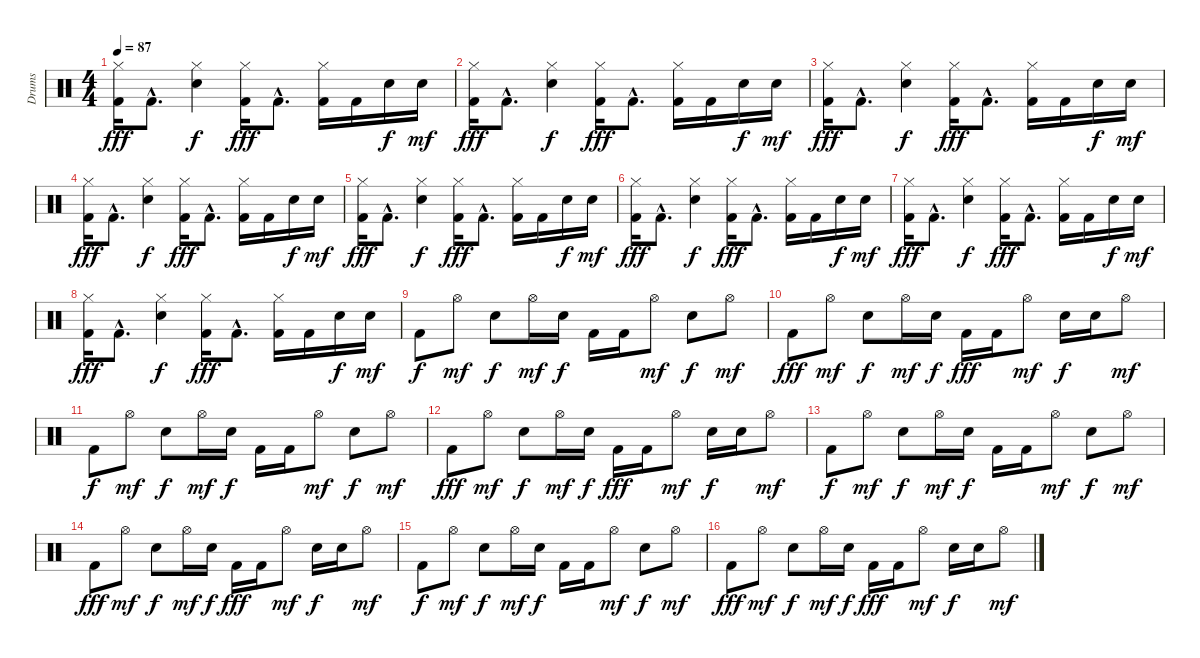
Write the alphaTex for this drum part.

\track ("Drums" "Drums") {instrument percussion}
\staff {score}
\articulation defaults
\ts (4 4)
\tempo 87
\clef neutral
\ks c
("Hi-Hat (closed)" "Kick (hit) 2").16{dy fff} "Kick (hit) 2"{hac}.8{d} ("Hi-Hat (closed)" "Snare (hit) 2").4{dy f} ("Hi-Hat (closed)" "Kick (hit) 2").16{dy fff} "Kick (hit) 2"{hac}.8{d} ("Hi-Hat (closed)" "Kick (hit) 2").16 "Kick (hit) 2".16 "Snare (hit) 2".16{dy f} "Snare (hit) 2".16{dy mf} |
("Hi-Hat (closed)" "Kick (hit) 2").16{dy fff} "Kick (hit) 2"{hac}.8{d} ("Hi-Hat (closed)" "Snare (hit) 2").4{dy f} ("Hi-Hat (closed)" "Kick (hit) 2").16{dy fff} "Kick (hit) 2"{hac}.8{d} ("Hi-Hat (closed)" "Kick (hit) 2").16 "Kick (hit) 2".16 "Snare (hit) 2".16{dy f} "Snare (hit) 2".16{dy mf} |
("Hi-Hat (closed)" "Kick (hit) 2").16{dy fff} "Kick (hit) 2"{hac}.8{d} ("Hi-Hat (closed)" "Snare (hit) 2").4{dy f} ("Hi-Hat (closed)" "Kick (hit) 2").16{dy fff} "Kick (hit) 2"{hac}.8{d} ("Hi-Hat (closed)" "Kick (hit) 2").16 "Kick (hit) 2".16 "Snare (hit) 2".16{dy f} "Snare (hit) 2".16{dy mf} |
("Hi-Hat (closed)" "Kick (hit) 2").16{dy fff} "Kick (hit) 2"{hac}.8{d} ("Hi-Hat (closed)" "Snare (hit) 2").4{dy f} ("Hi-Hat (closed)" "Kick (hit) 2").16{dy fff} "Kick (hit) 2"{hac}.8{d} ("Hi-Hat (closed)" "Kick (hit) 2").16 "Kick (hit) 2".16 "Snare (hit) 2".16{dy f} "Snare (hit) 2".16{dy mf} |
("Hi-Hat (closed)" "Kick (hit) 2").16{dy fff} "Kick (hit) 2"{hac}.8{d} ("Hi-Hat (closed)" "Snare (hit) 2").4{dy f} ("Hi-Hat (closed)" "Kick (hit) 2").16{dy fff} "Kick (hit) 2"{hac}.8{d} ("Hi-Hat (closed)" "Kick (hit) 2").16 "Kick (hit) 2".16 "Snare (hit) 2".16{dy f} "Snare (hit) 2".16{dy mf} |
("Hi-Hat (closed)" "Kick (hit) 2").16{dy fff} "Kick (hit) 2"{hac}.8{d} ("Hi-Hat (closed)" "Snare (hit) 2").4{dy f} ("Hi-Hat (closed)" "Kick (hit) 2").16{dy fff} "Kick (hit) 2"{hac}.8{d} ("Hi-Hat (closed)" "Kick (hit) 2").16 "Kick (hit) 2".16 "Snare (hit) 2".16{dy f} "Snare (hit) 2".16{dy mf} |
("Hi-Hat (closed)" "Kick (hit) 2").16{dy fff} "Kick (hit) 2"{hac}.8{d} ("Hi-Hat (closed)" "Snare (hit) 2").4{dy f} ("Hi-Hat (closed)" "Kick (hit) 2").16{dy fff} "Kick (hit) 2"{hac}.8{d} ("Hi-Hat (closed)" "Kick (hit) 2").16 "Kick (hit) 2".16 "Snare (hit) 2".16{dy f} "Snare (hit) 2".16{dy mf} |
("Hi-Hat (closed)" "Kick (hit) 2").16{dy fff} "Kick (hit) 2"{hac}.8{d} ("Hi-Hat (closed)" "Snare (hit) 2").4{dy f} ("Hi-Hat (closed)" "Kick (hit) 2").16{dy fff} "Kick (hit) 2"{hac}.8{d} ("Hi-Hat (closed)" "Kick (hit) 2").16 "Kick (hit) 2".16 "Snare (hit) 2".16{dy f} "Snare (hit) 2".16{dy mf} |
"Kick (hit) 2".8{dy f} "Hi-Hat (open)".8{dy mf} "Snare (hit) 2".8{dy f} "Hi-Hat (open)".16{dy mf} "Snare (hit) 2".16{dy f} "Kick (hit) 2".16 "Kick (hit) 2".16 "Hi-Hat (open)".8{dy mf} "Snare (hit) 2".8{dy f} "Hi-Hat (open)".8{dy mf} |
"Kick (hit) 2".8{dy fff} "Hi-Hat (open)".8{dy mf} "Snare (hit) 2".8{dy f} "Hi-Hat (open)".16{dy mf} "Snare (hit) 2".16{dy f} "Kick (hit) 2".16{dy fff} "Kick (hit) 2".16 "Hi-Hat (open)".8{dy mf} "Snare (hit) 2".16{dy f} "Snare (hit) 2".16 "Hi-Hat (open)".8{dy mf} |
"Kick (hit) 2".8{dy f} "Hi-Hat (open)".8{dy mf} "Snare (hit) 2".8{dy f} "Hi-Hat (open)".16{dy mf} "Snare (hit) 2".16{dy f} "Kick (hit) 2".16 "Kick (hit) 2".16 "Hi-Hat (open)".8{dy mf} "Snare (hit) 2".8{dy f} "Hi-Hat (open)".8{dy mf} |
"Kick (hit) 2".8{dy fff} "Hi-Hat (open)".8{dy mf} "Snare (hit) 2".8{dy f} "Hi-Hat (open)".16{dy mf} "Snare (hit) 2".16{dy f} "Kick (hit) 2".16{dy fff} "Kick (hit) 2".16 "Hi-Hat (open)".8{dy mf} "Snare (hit) 2".16{dy f} "Snare (hit) 2".16 "Hi-Hat (open)".8{dy mf} |
"Kick (hit) 2".8{dy f} "Hi-Hat (open)".8{dy mf} "Snare (hit) 2".8{dy f} "Hi-Hat (open)".16{dy mf} "Snare (hit) 2".16{dy f} "Kick (hit) 2".16 "Kick (hit) 2".16 "Hi-Hat (open)".8{dy mf} "Snare (hit) 2".8{dy f} "Hi-Hat (open)".8{dy mf} |
"Kick (hit) 2".8{dy fff} "Hi-Hat (open)".8{dy mf} "Snare (hit) 2".8{dy f} "Hi-Hat (open)".16{dy mf} "Snare (hit) 2".16{dy f} "Kick (hit) 2".16{dy fff} "Kick (hit) 2".16 "Hi-Hat (open)".8{dy mf} "Snare (hit) 2".16{dy f} "Snare (hit) 2".16 "Hi-Hat (open)".8{dy mf} |
"Kick (hit) 2".8{dy f} "Hi-Hat (open)".8{dy mf} "Snare (hit) 2".8{dy f} "Hi-Hat (open)".16{dy mf} "Snare (hit) 2".16{dy f} "Kick (hit) 2".16 "Kick (hit) 2".16 "Hi-Hat (open)".8{dy mf} "Snare (hit) 2".8{dy f} "Hi-Hat (open)".8{dy mf} |
"Kick (hit) 2".8{dy fff} "Hi-Hat (open)".8{dy mf} "Snare (hit) 2".8{dy f} "Hi-Hat (open)".16{dy mf} "Snare (hit) 2".16{dy f} "Kick (hit) 2".16{dy fff} "Kick (hit) 2".16 "Hi-Hat (open)".8{dy mf} "Snare (hit) 2".16{dy f} "Snare (hit) 2".16 "Hi-Hat (open)".8{dy mf}
